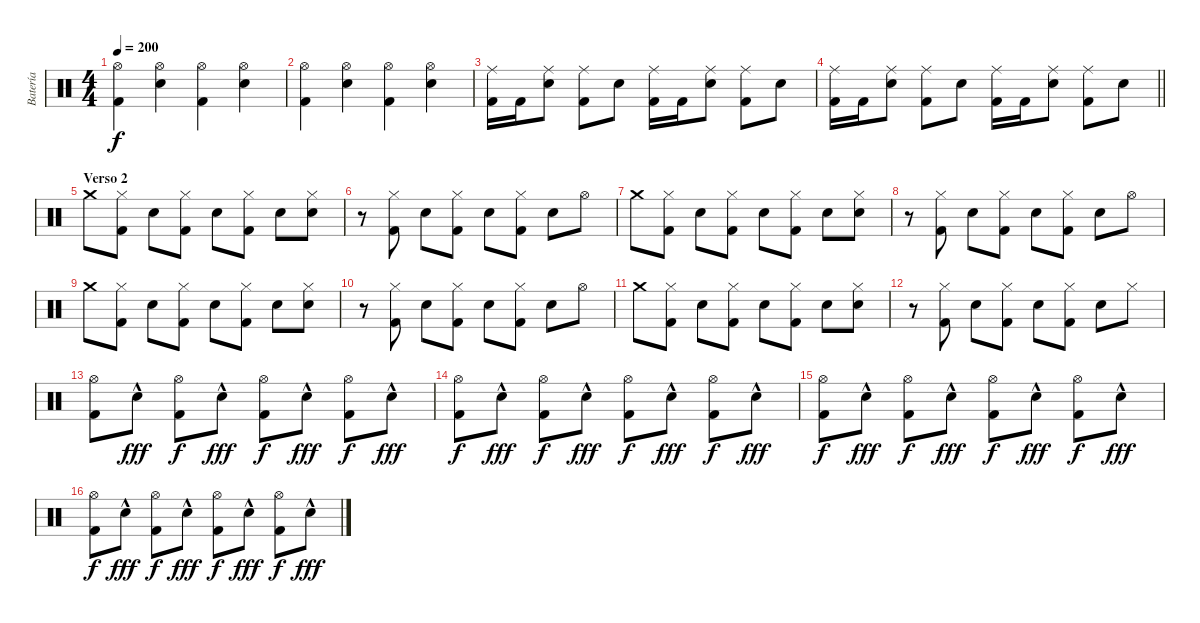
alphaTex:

\track ("Batería" "Batería") {instrument percussion bank 6}
\staff {score}
\articulation defaults
\ts (4 4)
\tempo 200
\clef neutral
\ks c
("Hi-Hat (open)" "Kick (hit) 2").4{dy f} ("Snare (hit) 2" "Hi-Hat (open)").4 ("Hi-Hat (open)" "Kick (hit) 2").4 ("Snare (hit) 2" "Hi-Hat (open)").4 |
("Hi-Hat (open)" "Kick (hit) 2").4 ("Snare (hit) 2" "Hi-Hat (open)").4 ("Hi-Hat (open)" "Kick (hit) 2").4 ("Snare (hit) 2" "Hi-Hat (open)").4 |
("Ride (middle)" "Kick (hit) 2").16 "Kick (hit) 2".16 ("Snare (hit) 2" "Ride (middle)").8 ("Ride (middle)" "Kick (hit) 2").8 "Snare (hit) 2".8 ("Ride (middle)" "Kick (hit) 2").16 "Kick (hit) 2".16 ("Snare (hit) 2" "Ride (middle)").8 ("Ride (middle)" "Kick (hit) 2").8 "Snare (hit) 2".8 |
\barLineRight lightlight
("Ride (middle)" "Kick (hit) 2").16 "Kick (hit) 2".16 ("Snare (hit) 2" "Ride (middle)").8 ("Ride (middle)" "Kick (hit) 2").8 "Snare (hit) 2".8 ("Ride (middle)" "Kick (hit) 2").16 "Kick (hit) 2".16 ("Snare (hit) 2" "Ride (middle)").8 ("Ride (middle)" "Kick (hit) 2").8 "Snare (hit) 2".8 |
\section ("" "Verso 2")
"Crash medium (hit)".8 ("Hi-Hat (closed)" "Kick (hit) 2").8 "Snare (hit) 2".8 ("Hi-Hat (closed)" "Kick (hit) 2").8 "Snare (hit) 2".8 ("Hi-Hat (closed)" "Kick (hit) 2").8 "Snare (hit) 2".8 ("Snare (hit) 2" "Hi-Hat (closed)").8 |
r.8 ("Hi-Hat (closed)" "Kick (hit) 2").8 "Snare (hit) 2".8 ("Hi-Hat (closed)" "Kick (hit) 2").8 "Snare (hit) 2".8 ("Hi-Hat (closed)" "Kick (hit) 2").8 "Snare (hit) 2".8 "Hi-Hat (open)".8 |
"Crash medium (hit)".8 ("Hi-Hat (closed)" "Kick (hit) 2").8 "Snare (hit) 2".8 ("Hi-Hat (closed)" "Kick (hit) 2").8 "Snare (hit) 2".8 ("Hi-Hat (closed)" "Kick (hit) 2").8 "Snare (hit) 2".8 ("Snare (hit) 2" "Hi-Hat (closed)").8 |
r.8 ("Hi-Hat (closed)" "Kick (hit) 2").8 "Snare (hit) 2".8 ("Hi-Hat (closed)" "Kick (hit) 2").8 "Snare (hit) 2".8 ("Hi-Hat (closed)" "Kick (hit) 2").8 "Snare (hit) 2".8 "Hi-Hat (open)".8 |
"Crash medium (hit)".8 ("Hi-Hat (closed)" "Kick (hit) 2").8 "Snare (hit) 2".8 ("Hi-Hat (closed)" "Kick (hit) 2").8 "Snare (hit) 2".8 ("Hi-Hat (closed)" "Kick (hit) 2").8 "Snare (hit) 2".8 ("Snare (hit) 2" "Hi-Hat (closed)").8 |
r.8 ("Hi-Hat (closed)" "Kick (hit) 2").8 "Snare (hit) 2".8 ("Hi-Hat (closed)" "Kick (hit) 2").8 "Snare (hit) 2".8 ("Hi-Hat (closed)" "Kick (hit) 2").8 "Snare (hit) 2".8 "Hi-Hat (open)".8 |
"Crash medium (hit)".8 ("Hi-Hat (closed)" "Kick (hit) 2").8 "Snare (hit) 2".8 ("Hi-Hat (closed)" "Kick (hit) 2").8 "Snare (hit) 2".8 ("Hi-Hat (closed)" "Kick (hit) 2").8 "Snare (hit) 2".8 ("Snare (hit) 2" "Hi-Hat (closed)").8 |
r.8 ("Hi-Hat (closed)" "Kick (hit) 2").8 "Snare (hit) 2".8 ("Hi-Hat (closed)" "Kick (hit) 2").8 "Snare (hit) 2".8 ("Hi-Hat (closed)" "Kick (hit) 2").8 "Snare (hit) 2".8 "Hi-Hat (closed)".8 |
("Hi-Hat (open)" "Kick (hit) 2").8 "Snare (hit) 2"{hac}.8{dy fff} ("Hi-Hat (open)" "Kick (hit) 2").8{dy f} "Snare (hit) 2"{hac}.8{dy fff} ("Hi-Hat (open)" "Kick (hit) 2").8{dy f} "Snare (hit) 2"{hac}.8{dy fff} ("Hi-Hat (open)" "Kick (hit) 2").8{dy f} "Snare (hit) 2"{hac}.8{dy fff} |
("Hi-Hat (open)" "Kick (hit) 2").8{dy f} "Snare (hit) 2"{hac}.8{dy fff} ("Hi-Hat (open)" "Kick (hit) 2").8{dy f} "Snare (hit) 2"{hac}.8{dy fff} ("Hi-Hat (open)" "Kick (hit) 2").8{dy f} "Snare (hit) 2"{hac}.8{dy fff} ("Hi-Hat (open)" "Kick (hit) 2").8{dy f} "Snare (hit) 2"{hac}.8{dy fff} |
("Hi-Hat (open)" "Kick (hit) 2").8{dy f} "Snare (hit) 2"{hac}.8{dy fff} ("Hi-Hat (open)" "Kick (hit) 2").8{dy f} "Snare (hit) 2"{hac}.8{dy fff} ("Hi-Hat (open)" "Kick (hit) 2").8{dy f} "Snare (hit) 2"{hac}.8{dy fff} ("Hi-Hat (open)" "Kick (hit) 2").8{dy f} "Snare (hit) 2"{hac}.8{dy fff} |
("Hi-Hat (open)" "Kick (hit) 2").8{dy f} "Snare (hit) 2"{hac}.8{dy fff} ("Hi-Hat (open)" "Kick (hit) 2").8{dy f} "Snare (hit) 2"{hac}.8{dy fff} ("Hi-Hat (open)" "Kick (hit) 2").8{dy f} "Snare (hit) 2"{hac}.8{dy fff} ("Hi-Hat (open)" "Kick (hit) 2").8{dy f} "Snare (hit) 2"{hac}.8{dy fff}
